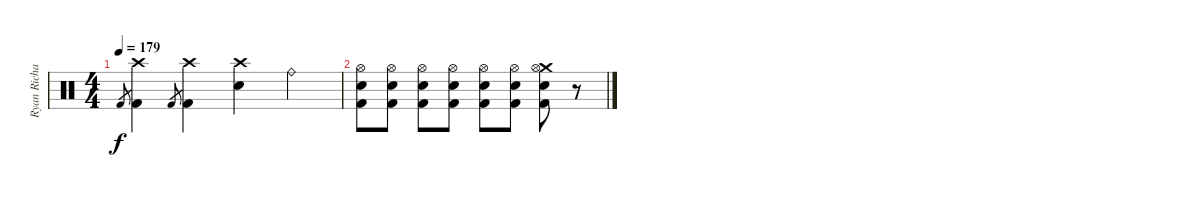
\track ("Ryan Richards" "Ryan Richa") {instrument percussion}
\staff {score}
\articulation defaults
\ts (4 4)
\tempo 179
\clef neutral
\ks c "Kick (hit) 2".8{gr dy f}
("Crash high (hit)" "Kick (hit) 2").4 "Kick (hit) 2".8{gr} ("Crash high (hit)" "Kick (hit) 2").4 ("Crash high (hit)" "Snare (hit) 2").4 "Ride (bell)".4 |
("Hi-Hat (open)" "Snare (hit) 2" "Kick (hit) 2").8 ("Hi-Hat (open)" "Snare (hit) 2" "Kick (hit) 2").8 ("Hi-Hat (open)" "Snare (hit) 2" "Kick (hit) 2").8 ("Hi-Hat (open)" "Snare (hit) 2" "Kick (hit) 2").8 ("Hi-Hat (open)" "Snare (hit) 2" "Kick (hit) 2").8 ("Hi-Hat (open)" "Snare (hit) 2" "Kick (hit) 2").8 ("Crash medium (hit)" "Hi-Hat (open)" "Snare (hit) 2" "Kick (hit) 2").8 r.8
